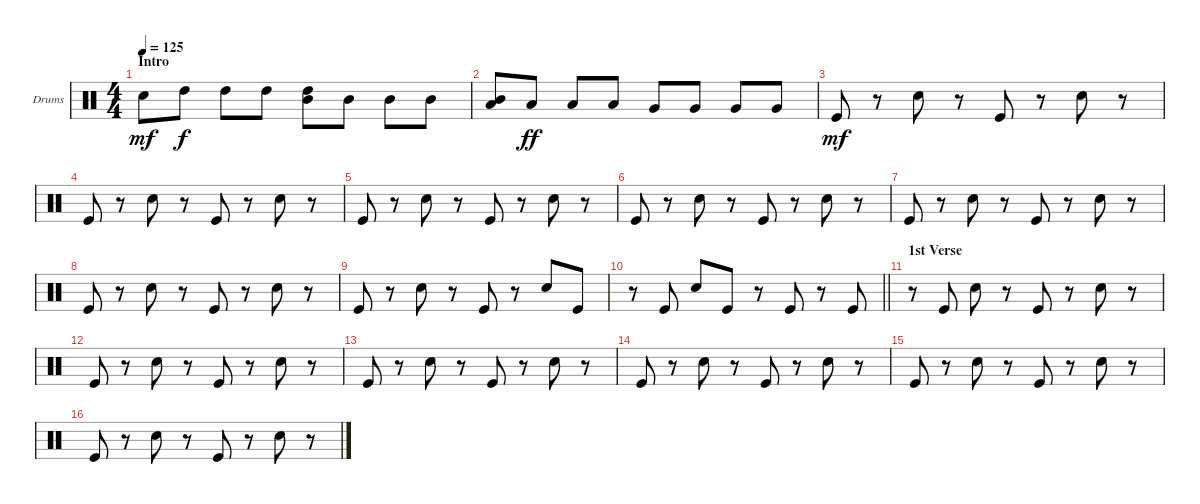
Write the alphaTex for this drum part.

\bracketExtendMode groupsimilarinstruments
\firstSystemTrackNameOrientation horizontal
\otherSystemsTrackNameOrientation horizontal
\track ("Nick Menza" "Drums") {instrument percussion}
\staff {score}
\articulation defaults
\ts (4 4)
\beaming (8 2 2 2 2)
\section ("" "Intro")
\tempo 125
\clef neutral
\ks c "Snare (hit) 2".8{dy mf} "High Tom (hit)".8{dy f} "High Tom (hit)".8 "High Tom (hit)".8
("High Tom (hit)" "Mid Tom (hit)").8 "Mid Tom (hit)".8 "Mid Tom (hit)".8 "Mid Tom (hit)".8 |
("Mid Tom (hit)" "Low Tom (hit)").8 "Low Tom (hit)".8{dy ff} "Low Tom (hit)".8 "Low Tom (hit)".8 "Very Low Tom (hit)".8 "Very Low Tom (hit)".8 "Very Low Tom (hit)".8 "Very Low Tom (hit)".8 |
"Kick (hit)".8{dy mf} r.8 "Snare (hit) 2".8 r.8 "Kick (hit)".8 r.8 "Snare (hit) 2".8 r.8 |
"Kick (hit)".8 r.8 "Snare (hit) 2".8 r.8 "Kick (hit)".8 r.8 "Snare (hit) 2".8 r.8 |
"Kick (hit)".8 r.8 "Snare (hit) 2".8 r.8 "Kick (hit)".8 r.8 "Snare (hit) 2".8 r.8 |
"Kick (hit)".8 r.8 "Snare (hit) 2".8 r.8 "Kick (hit)".8 r.8 "Snare (hit) 2".8 r.8 |
"Kick (hit)".8 r.8 "Snare (hit) 2".8 r.8 "Kick (hit)".8 r.8 "Snare (hit) 2".8 r.8 |
"Kick (hit)".8 r.8 "Snare (hit) 2".8 r.8 "Kick (hit)".8 r.8 "Snare (hit) 2".8 r.8 |
"Kick (hit)".8 r.8 "Snare (hit) 2".8 r.8 "Kick (hit)".8 r.8 "Snare (hit) 2".8 "Kick (hit)".8 |
\barLineRight lightlight
r.8 "Kick (hit)".8 "Snare (hit) 2".8 "Kick (hit)".8 r.8 "Kick (hit)".8 r.8 "Kick (hit)".8 |
\section ("" "1st Verse")
r.8 "Kick (hit)".8 "Snare (hit) 2".8 r.8 "Kick (hit)".8 r.8 "Snare (hit) 2".8 r.8 |
"Kick (hit)".8 r.8 "Snare (hit) 2".8 r.8 "Kick (hit)".8 r.8 "Snare (hit) 2".8 r.8 |
"Kick (hit)".8 r.8 "Snare (hit) 2".8 r.8 "Kick (hit)".8 r.8 "Snare (hit) 2".8 r.8 |
"Kick (hit)".8 r.8 "Snare (hit) 2".8 r.8 "Kick (hit)".8 r.8 "Snare (hit) 2".8 r.8 |
"Kick (hit)".8 r.8 "Snare (hit) 2".8 r.8 "Kick (hit)".8 r.8 "Snare (hit) 2".8 r.8 |
"Kick (hit)".8 r.8 "Snare (hit) 2".8 r.8 "Kick (hit)".8 r.8 "Snare (hit) 2".8 r.8
